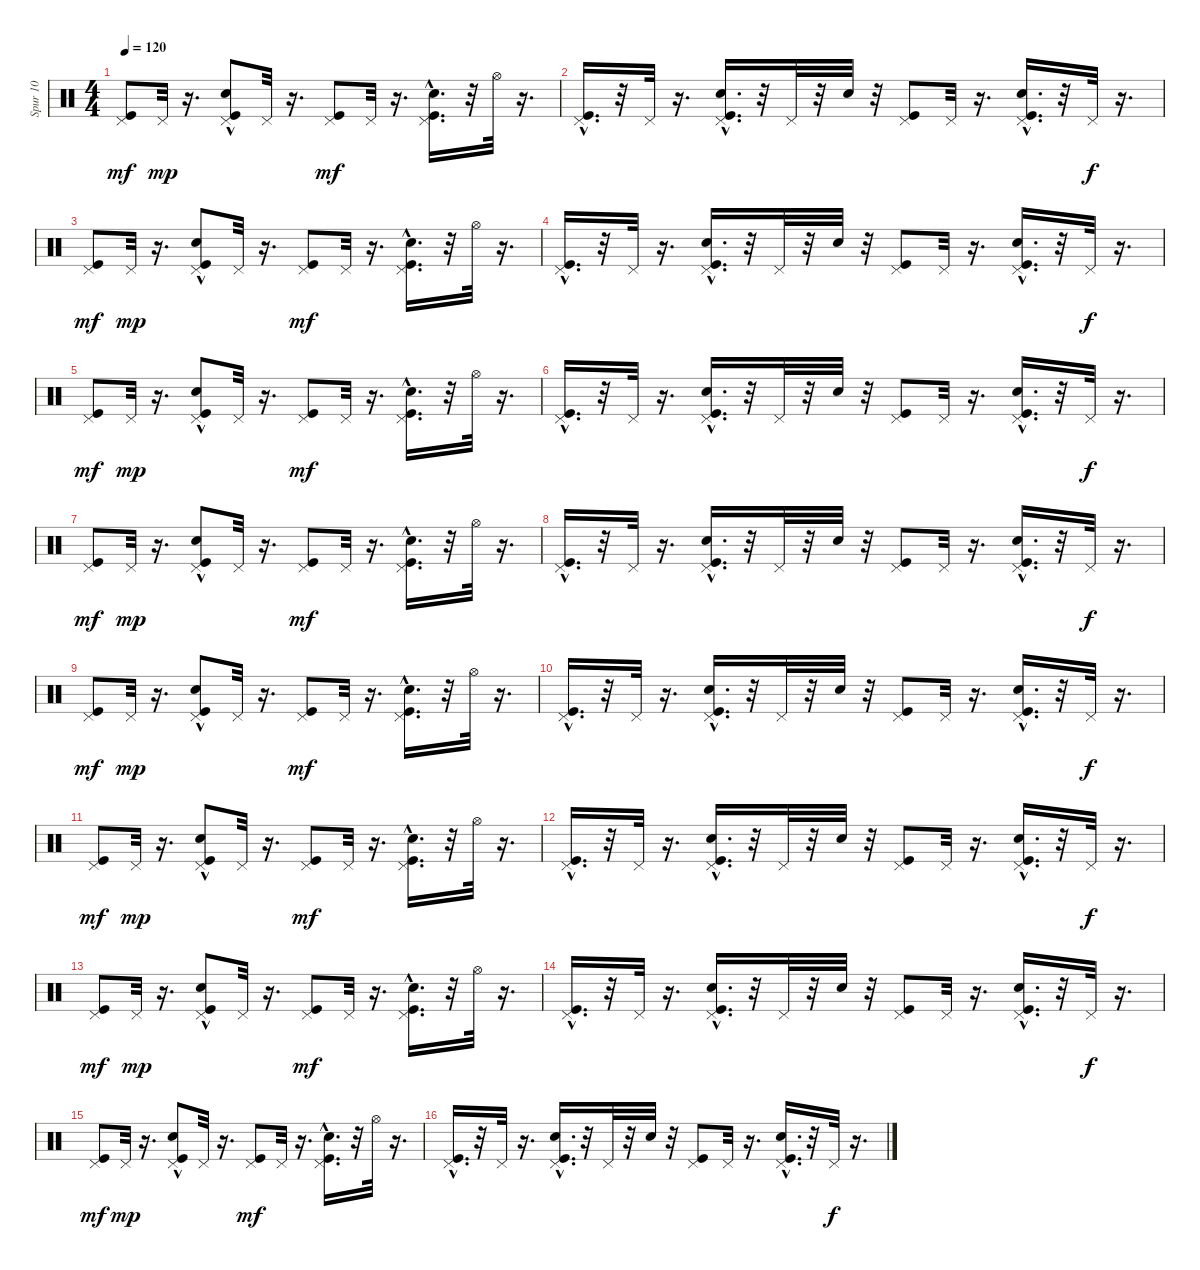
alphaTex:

\track ("Spur 10" "Spur 10") {instrument percussion}
\staff {score}
\articulation defaults
\ts (4 4)
\tempo 120
\clef neutral
\ks c
("Kick (hit)" "Pedal Hi-Hat (hit)").8{dy mf} "Pedal Hi-Hat (hit)".32{dy mp} r.16{d} ("Kick (hit)" "Snare (hit) 2"{hac} "Pedal Hi-Hat (hit)").8 "Pedal Hi-Hat (hit)".32 r.16{d} ("Kick (hit)" "Pedal Hi-Hat (hit)").8{dy mf} "Pedal Hi-Hat (hit)".32 r.16{d} ("Snare (hit) 2" "Kick (hit)"{hac} "Pedal Hi-Hat (hit)").16{d} r.32 "Hi-Hat (open)".32 r.16{d} |
("Kick (hit)"{hac} "Pedal Hi-Hat (hit)").16{d} r.32 "Pedal Hi-Hat (hit)".32 r.16{d} ("Kick (hit)"{hac} "Snare (hit) 2" "Pedal Hi-Hat (hit)").16{d} r.32 "Pedal Hi-Hat (hit)".32 r.32 "Snare (hit) 2".32 r.32 ("Kick (hit)" "Pedal Hi-Hat (hit)").8 "Pedal Hi-Hat (hit)".32 r.16{d} ("Snare (hit) 2" "Kick (hit)"{hac} "Pedal Hi-Hat (hit)").16{d} r.32 "Pedal Hi-Hat (hit)".32{dy f} r.16{d} |
("Kick (hit)" "Pedal Hi-Hat (hit)").8{dy mf} "Pedal Hi-Hat (hit)".32{dy mp} r.16{d} ("Kick (hit)" "Snare (hit) 2"{hac} "Pedal Hi-Hat (hit)").8 "Pedal Hi-Hat (hit)".32 r.16{d} ("Kick (hit)" "Pedal Hi-Hat (hit)").8{dy mf} "Pedal Hi-Hat (hit)".32 r.16{d} ("Snare (hit) 2" "Kick (hit)"{hac} "Pedal Hi-Hat (hit)").16{d} r.32 "Hi-Hat (open)".32 r.16{d} |
("Kick (hit)"{hac} "Pedal Hi-Hat (hit)").16{d} r.32 "Pedal Hi-Hat (hit)".32 r.16{d} ("Kick (hit)"{hac} "Snare (hit) 2" "Pedal Hi-Hat (hit)").16{d} r.32 "Pedal Hi-Hat (hit)".32 r.32 "Snare (hit) 2".32 r.32 ("Kick (hit)" "Pedal Hi-Hat (hit)").8 "Pedal Hi-Hat (hit)".32 r.16{d} ("Snare (hit) 2" "Kick (hit)"{hac} "Pedal Hi-Hat (hit)").16{d} r.32 "Pedal Hi-Hat (hit)".32{dy f} r.16{d} |
("Kick (hit)" "Pedal Hi-Hat (hit)").8{dy mf} "Pedal Hi-Hat (hit)".32{dy mp} r.16{d} ("Kick (hit)" "Snare (hit) 2"{hac} "Pedal Hi-Hat (hit)").8 "Pedal Hi-Hat (hit)".32 r.16{d} ("Kick (hit)" "Pedal Hi-Hat (hit)").8{dy mf} "Pedal Hi-Hat (hit)".32 r.16{d} ("Snare (hit) 2" "Kick (hit)"{hac} "Pedal Hi-Hat (hit)").16{d} r.32 "Hi-Hat (open)".32 r.16{d} |
("Kick (hit)"{hac} "Pedal Hi-Hat (hit)").16{d} r.32 "Pedal Hi-Hat (hit)".32 r.16{d} ("Kick (hit)"{hac} "Snare (hit) 2" "Pedal Hi-Hat (hit)").16{d} r.32 "Pedal Hi-Hat (hit)".32 r.32 "Snare (hit) 2".32 r.32 ("Kick (hit)" "Pedal Hi-Hat (hit)").8 "Pedal Hi-Hat (hit)".32 r.16{d} ("Snare (hit) 2" "Kick (hit)"{hac} "Pedal Hi-Hat (hit)").16{d} r.32 "Pedal Hi-Hat (hit)".32{dy f} r.16{d} |
("Kick (hit)" "Pedal Hi-Hat (hit)").8{dy mf} "Pedal Hi-Hat (hit)".32{dy mp} r.16{d} ("Kick (hit)" "Snare (hit) 2"{hac} "Pedal Hi-Hat (hit)").8 "Pedal Hi-Hat (hit)".32 r.16{d} ("Kick (hit)" "Pedal Hi-Hat (hit)").8{dy mf} "Pedal Hi-Hat (hit)".32 r.16{d} ("Snare (hit) 2" "Kick (hit)"{hac} "Pedal Hi-Hat (hit)").16{d} r.32 "Hi-Hat (open)".32 r.16{d} |
("Kick (hit)"{hac} "Pedal Hi-Hat (hit)").16{d} r.32 "Pedal Hi-Hat (hit)".32 r.16{d} ("Kick (hit)"{hac} "Snare (hit) 2" "Pedal Hi-Hat (hit)").16{d} r.32 "Pedal Hi-Hat (hit)".32 r.32 "Snare (hit) 2".32 r.32 ("Kick (hit)" "Pedal Hi-Hat (hit)").8 "Pedal Hi-Hat (hit)".32 r.16{d} ("Snare (hit) 2" "Kick (hit)"{hac} "Pedal Hi-Hat (hit)").16{d} r.32 "Pedal Hi-Hat (hit)".32{dy f} r.16{d} |
("Kick (hit)" "Pedal Hi-Hat (hit)").8{dy mf} "Pedal Hi-Hat (hit)".32{dy mp} r.16{d} ("Kick (hit)" "Snare (hit) 2"{hac} "Pedal Hi-Hat (hit)").8 "Pedal Hi-Hat (hit)".32 r.16{d} ("Kick (hit)" "Pedal Hi-Hat (hit)").8{dy mf} "Pedal Hi-Hat (hit)".32 r.16{d} ("Snare (hit) 2" "Kick (hit)"{hac} "Pedal Hi-Hat (hit)").16{d} r.32 "Hi-Hat (open)".32 r.16{d} |
("Kick (hit)"{hac} "Pedal Hi-Hat (hit)").16{d} r.32 "Pedal Hi-Hat (hit)".32 r.16{d} ("Kick (hit)"{hac} "Snare (hit) 2" "Pedal Hi-Hat (hit)").16{d} r.32 "Pedal Hi-Hat (hit)".32 r.32 "Snare (hit) 2".32 r.32 ("Kick (hit)" "Pedal Hi-Hat (hit)").8 "Pedal Hi-Hat (hit)".32 r.16{d} ("Snare (hit) 2" "Kick (hit)"{hac} "Pedal Hi-Hat (hit)").16{d} r.32 "Pedal Hi-Hat (hit)".32{dy f} r.16{d} |
("Kick (hit)" "Pedal Hi-Hat (hit)").8{dy mf} "Pedal Hi-Hat (hit)".32{dy mp} r.16{d} ("Kick (hit)" "Snare (hit) 2"{hac} "Pedal Hi-Hat (hit)").8 "Pedal Hi-Hat (hit)".32 r.16{d} ("Kick (hit)" "Pedal Hi-Hat (hit)").8{dy mf} "Pedal Hi-Hat (hit)".32 r.16{d} ("Snare (hit) 2" "Kick (hit)"{hac} "Pedal Hi-Hat (hit)").16{d} r.32 "Hi-Hat (open)".32 r.16{d} |
("Kick (hit)"{hac} "Pedal Hi-Hat (hit)").16{d} r.32 "Pedal Hi-Hat (hit)".32 r.16{d} ("Kick (hit)"{hac} "Snare (hit) 2" "Pedal Hi-Hat (hit)").16{d} r.32 "Pedal Hi-Hat (hit)".32 r.32 "Snare (hit) 2".32 r.32 ("Kick (hit)" "Pedal Hi-Hat (hit)").8 "Pedal Hi-Hat (hit)".32 r.16{d} ("Snare (hit) 2" "Kick (hit)"{hac} "Pedal Hi-Hat (hit)").16{d} r.32 "Pedal Hi-Hat (hit)".32{dy f} r.16{d} |
("Kick (hit)" "Pedal Hi-Hat (hit)").8{dy mf} "Pedal Hi-Hat (hit)".32{dy mp} r.16{d} ("Kick (hit)" "Snare (hit) 2"{hac} "Pedal Hi-Hat (hit)").8 "Pedal Hi-Hat (hit)".32 r.16{d} ("Kick (hit)" "Pedal Hi-Hat (hit)").8{dy mf} "Pedal Hi-Hat (hit)".32 r.16{d} ("Snare (hit) 2" "Kick (hit)"{hac} "Pedal Hi-Hat (hit)").16{d} r.32 "Hi-Hat (open)".32 r.16{d} |
("Kick (hit)"{hac} "Pedal Hi-Hat (hit)").16{d} r.32 "Pedal Hi-Hat (hit)".32 r.16{d} ("Kick (hit)"{hac} "Snare (hit) 2" "Pedal Hi-Hat (hit)").16{d} r.32 "Pedal Hi-Hat (hit)".32 r.32 "Snare (hit) 2".32 r.32 ("Kick (hit)" "Pedal Hi-Hat (hit)").8 "Pedal Hi-Hat (hit)".32 r.16{d} ("Snare (hit) 2" "Kick (hit)"{hac} "Pedal Hi-Hat (hit)").16{d} r.32 "Pedal Hi-Hat (hit)".32{dy f} r.16{d} |
("Kick (hit)" "Pedal Hi-Hat (hit)").8{dy mf} "Pedal Hi-Hat (hit)".32{dy mp} r.16{d} ("Kick (hit)" "Snare (hit) 2"{hac} "Pedal Hi-Hat (hit)").8 "Pedal Hi-Hat (hit)".32 r.16{d} ("Kick (hit)" "Pedal Hi-Hat (hit)").8{dy mf} "Pedal Hi-Hat (hit)".32 r.16{d} ("Snare (hit) 2" "Kick (hit)"{hac} "Pedal Hi-Hat (hit)").16{d} r.32 "Hi-Hat (open)".32 r.16{d} |
("Kick (hit)"{hac} "Pedal Hi-Hat (hit)").16{d} r.32 "Pedal Hi-Hat (hit)".32 r.16{d} ("Kick (hit)"{hac} "Snare (hit) 2" "Pedal Hi-Hat (hit)").16{d} r.32 "Pedal Hi-Hat (hit)".32 r.32 "Snare (hit) 2".32 r.32 ("Kick (hit)" "Pedal Hi-Hat (hit)").8 "Pedal Hi-Hat (hit)".32 r.16{d} ("Snare (hit) 2" "Kick (hit)"{hac} "Pedal Hi-Hat (hit)").16{d} r.32 "Pedal Hi-Hat (hit)".32{dy f} r.16{d}
